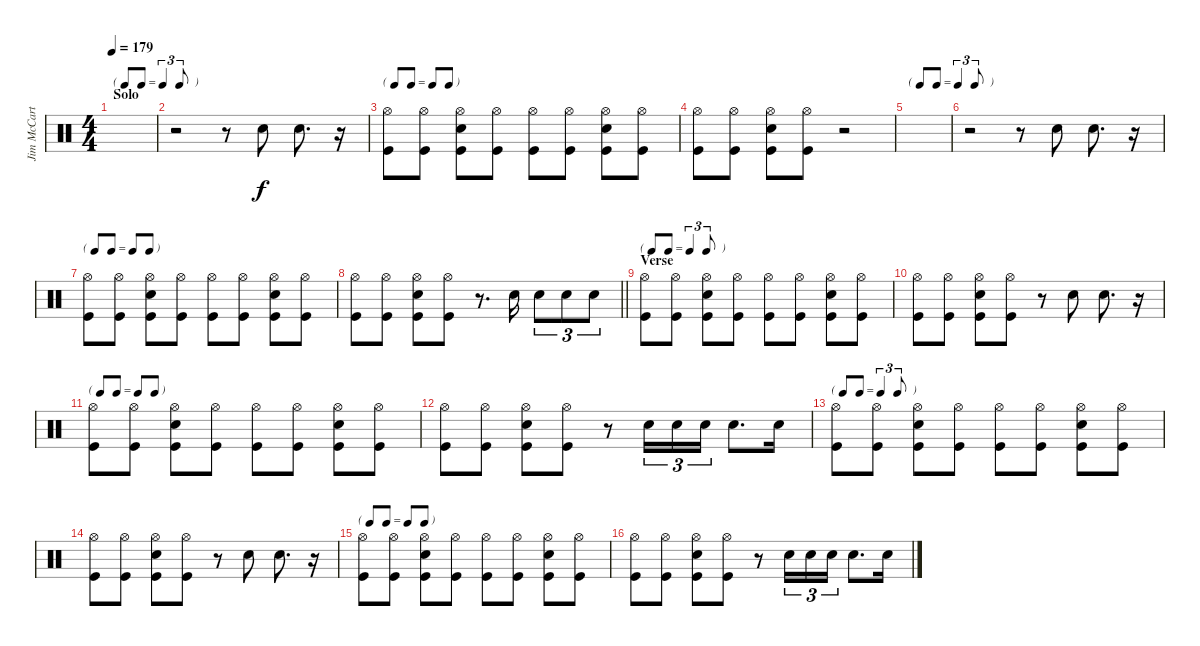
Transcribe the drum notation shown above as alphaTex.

\track ("Jim McCarty" "Jim McCart") {instrument percussion}
\staff {score}
\articulation defaults
\ts (4 4)
\tf triplet8th
\section ("" "Solo")
\tempo 179
\clef neutral
\ks c
|
r.2 r.8 "Snare (hit) 2".8 "Snare (hit) 2".8{d} r.16 |
\tf none
("Hi-Hat (open)" "Kick (hit)").8 ("Hi-Hat (open)" "Kick (hit)").8 ("Hi-Hat (open)" "Snare (hit) 2" "Kick (hit)").8 ("Hi-Hat (open)" "Kick (hit)").8 ("Hi-Hat (open)" "Kick (hit)").8 ("Hi-Hat (open)" "Kick (hit)").8 ("Hi-Hat (open)" "Snare (hit) 2" "Kick (hit)").8 ("Hi-Hat (open)" "Kick (hit)").8 |
("Hi-Hat (open)" "Kick (hit)").8 ("Hi-Hat (open)" "Kick (hit)").8 ("Hi-Hat (open)" "Snare (hit) 2" "Kick (hit)").8 ("Hi-Hat (open)" "Kick (hit)").8 r.2 |
\tf triplet8th
|
r.2 r.8 "Snare (hit) 2".8 "Snare (hit) 2".8{d} r.16 |
\tf none
("Hi-Hat (open)" "Kick (hit)").8 ("Hi-Hat (open)" "Kick (hit)").8 ("Hi-Hat (open)" "Snare (hit) 2" "Kick (hit)").8 ("Hi-Hat (open)" "Kick (hit)").8 ("Hi-Hat (open)" "Kick (hit)").8 ("Hi-Hat (open)" "Kick (hit)").8 ("Hi-Hat (open)" "Snare (hit) 2" "Kick (hit)").8 ("Hi-Hat (open)" "Kick (hit)").8 |
\barLineRight lightlight
("Hi-Hat (open)" "Kick (hit)").8 ("Hi-Hat (open)" "Kick (hit)").8 ("Hi-Hat (open)" "Snare (hit) 2" "Kick (hit)").8 ("Hi-Hat (open)" "Kick (hit)").8 r.8{d} "Snare (hit) 2".16 "Snare (hit) 2".8{tu (3 2)} "Snare (hit) 2".8{tu (3 2)} "Snare (hit) 2".8{tu (3 2)} |
\tf triplet8th
\section ("" "Verse")
("Hi-Hat (open)" "Kick (hit)").8 ("Hi-Hat (open)" "Kick (hit)").8 ("Hi-Hat (open)" "Snare (hit) 2" "Kick (hit)").8 ("Hi-Hat (open)" "Kick (hit)").8 ("Hi-Hat (open)" "Kick (hit)").8 ("Hi-Hat (open)" "Kick (hit)").8 ("Hi-Hat (open)" "Snare (hit) 2" "Kick (hit)").8 ("Hi-Hat (open)" "Kick (hit)").8 |
("Hi-Hat (open)" "Kick (hit)").8 ("Hi-Hat (open)" "Kick (hit)").8 ("Hi-Hat (open)" "Snare (hit) 2" "Kick (hit)").8 ("Hi-Hat (open)" "Kick (hit)").8 r.8 "Snare (hit) 2".8 "Snare (hit) 2".8{d} r.16 |
\tf none
("Hi-Hat (open)" "Kick (hit)").8 ("Hi-Hat (open)" "Kick (hit)").8 ("Hi-Hat (open)" "Snare (hit) 2" "Kick (hit)").8 ("Hi-Hat (open)" "Kick (hit)").8 ("Hi-Hat (open)" "Kick (hit)").8 ("Hi-Hat (open)" "Kick (hit)").8 ("Hi-Hat (open)" "Snare (hit) 2" "Kick (hit)").8 ("Hi-Hat (open)" "Kick (hit)").8 |
("Hi-Hat (open)" "Kick (hit)").8 ("Hi-Hat (open)" "Kick (hit)").8 ("Hi-Hat (open)" "Snare (hit) 2" "Kick (hit)").8 ("Hi-Hat (open)" "Kick (hit)").8 r.8 "Snare (hit) 2".16{tu (3 2)} "Snare (hit) 2".16{tu (3 2)} "Snare (hit) 2".16{tu (3 2)} "Snare (hit) 2".8{d} "Snare (hit) 2".16 |
\tf triplet8th
("Hi-Hat (open)" "Kick (hit)").8 ("Hi-Hat (open)" "Kick (hit)").8 ("Hi-Hat (open)" "Snare (hit) 2" "Kick (hit)").8 ("Hi-Hat (open)" "Kick (hit)").8 ("Hi-Hat (open)" "Kick (hit)").8 ("Hi-Hat (open)" "Kick (hit)").8 ("Hi-Hat (open)" "Snare (hit) 2" "Kick (hit)").8 ("Hi-Hat (open)" "Kick (hit)").8 |
("Hi-Hat (open)" "Kick (hit)").8 ("Hi-Hat (open)" "Kick (hit)").8 ("Hi-Hat (open)" "Snare (hit) 2" "Kick (hit)").8 ("Hi-Hat (open)" "Kick (hit)").8 r.8 "Snare (hit) 2".8 "Snare (hit) 2".8{d} r.16 |
\tf none
("Hi-Hat (open)" "Kick (hit)").8 ("Hi-Hat (open)" "Kick (hit)").8 ("Hi-Hat (open)" "Snare (hit) 2" "Kick (hit)").8 ("Hi-Hat (open)" "Kick (hit)").8 ("Hi-Hat (open)" "Kick (hit)").8 ("Hi-Hat (open)" "Kick (hit)").8 ("Hi-Hat (open)" "Snare (hit) 2" "Kick (hit)").8 ("Hi-Hat (open)" "Kick (hit)").8 |
("Hi-Hat (open)" "Kick (hit)").8 ("Hi-Hat (open)" "Kick (hit)").8 ("Hi-Hat (open)" "Snare (hit) 2" "Kick (hit)").8 ("Hi-Hat (open)" "Kick (hit)").8 r.8 "Snare (hit) 2".16{tu (3 2)} "Snare (hit) 2".16{tu (3 2)} "Snare (hit) 2".16{tu (3 2)} "Snare (hit) 2".8{d} "Snare (hit) 2".16
